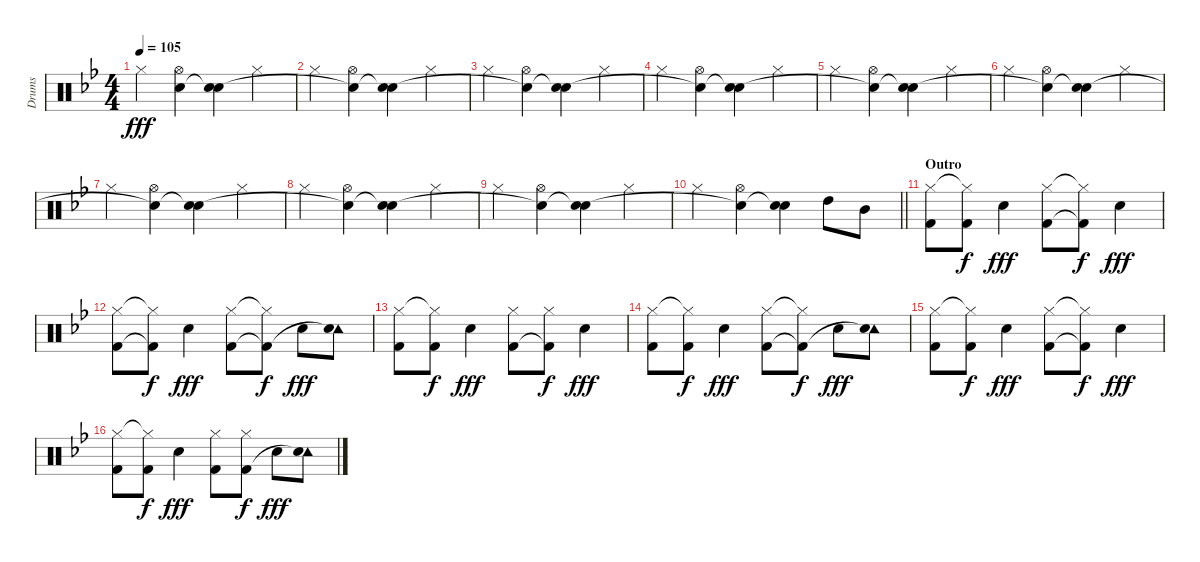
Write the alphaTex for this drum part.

\track ("Drums" "Drums") {instrument percussion}
\staff {score}
\articulation defaults
\ts (4 4)
\tempo 105
\clef neutral
\ks bb "Hi-Hat (closed)".4{dy fff}
("Hi-Hat (open)" "Snare (hit)"{t}).4 ("Snare (hit) 2" "Snare (hit)"{t}).4 "Hi-Hat (closed)".4 |
"Hi-Hat (closed)".4 ("Hi-Hat (open)" "Snare (hit)"{t}).4 ("Snare (hit) 2" "Snare (hit)"{t}).4 "Hi-Hat (closed)".4 |
"Hi-Hat (closed)".4 ("Hi-Hat (open)" "Snare (hit)"{t}).4 ("Snare (hit) 2" "Snare (hit)"{t}).4 "Hi-Hat (closed)".4 |
"Hi-Hat (closed)".4 ("Hi-Hat (open)" "Snare (hit)"{t}).4 ("Snare (hit) 2" "Snare (hit)"{t}).4 "Hi-Hat (closed)".4 |
"Hi-Hat (closed)".4 ("Hi-Hat (open)" "Snare (hit)"{t}).4 ("Snare (hit) 2" "Snare (hit)"{t}).4 "Hi-Hat (closed)".4 |
"Hi-Hat (closed)".4 ("Hi-Hat (open)" "Snare (hit)"{t}).4 ("Snare (hit) 2" "Snare (hit)"{t}).4 "Hi-Hat (closed)".4 |
"Hi-Hat (closed)".4 ("Hi-Hat (open)" "Snare (hit)"{t}).4 ("Snare (hit) 2" "Snare (hit)"{t}).4 "Hi-Hat (closed)".4 |
"Hi-Hat (closed)".4 ("Hi-Hat (open)" "Snare (hit)"{t}).4 ("Snare (hit) 2" "Snare (hit)"{t}).4 "Hi-Hat (closed)".4 |
"Hi-Hat (closed)".4 ("Hi-Hat (open)" "Snare (hit)"{t}).4 ("Snare (hit) 2" "Snare (hit)"{t}).4 "Hi-Hat (closed)".4 |
\barLineRight lightlight "Hi-Hat (closed)".4
("Hi-Hat (open)" "Snare (hit)"{t}).4 ("Snare (hit) 2" "Snare (hit)"{t}).4 "High Tom (hit)".8 "Mid Tom (hit)".8 |
\section ("" "Outro")
("Hi-Hat (closed)" "Kick (hit) 2").8 ("Hi-Hat (closed)"{t} "Kick (hit) 2").8{dy f} "Snare (hit) 2".4{dy fff} ("Hi-Hat (closed)" "Kick (hit) 2").8 ("Hi-Hat (closed)"{t} "Kick (hit) 2"{t}).8{dy f} "Snare (hit) 2".4{dy fff} |
("Hi-Hat (closed)" "Kick (hit) 2").8 ("Hi-Hat (closed)"{t} "Kick (hit) 2"{t}).8{dy f} "Snare (hit) 2".4{dy fff} ("Hi-Hat (closed)" "Kick (hit) 2").8 ("Hi-Hat (closed)"{t} "Kick (hit) 2"{t}).8{dy f} "Snare (hit) 2".8{dy fff} ("Tambourine (hit)" "Snare (hit)"{t}).8 |
("Hi-Hat (closed)" "Kick (hit) 2").8 ("Hi-Hat (closed)"{t} "Kick (hit) 2").8{dy f} "Snare (hit) 2".4{dy fff} ("Hi-Hat (closed)" "Kick (hit) 2").8 ("Hi-Hat (closed)" "Kick (hit) 2"{t}).8{dy f} "Snare (hit) 2".4{dy fff} |
("Hi-Hat (closed)" "Kick (hit) 2").8 ("Hi-Hat (closed)"{t} "Kick (hit) 2").8{dy f} "Snare (hit) 2".4{dy fff} ("Hi-Hat (closed)" "Kick (hit) 2").8 ("Hi-Hat (closed)"{t} "Kick (hit) 2"{t}).8{dy f} "Snare (hit) 2".8{dy fff} ("Tambourine (hit)" "Snare (hit)"{t}).8 |
("Hi-Hat (closed)" "Kick (hit) 2").8 ("Hi-Hat (closed)"{t} "Kick (hit) 2").8{dy f} "Snare (hit) 2".4{dy fff} ("Hi-Hat (closed)" "Kick (hit) 2").8 ("Hi-Hat (closed)"{t} "Kick (hit) 2"{t}).8{dy f} "Snare (hit) 2".4{dy fff} |
("Hi-Hat (closed)" "Kick (hit) 2").8 ("Hi-Hat (closed)"{t} "Kick (hit) 2").8{dy f} "Snare (hit) 2".4{dy fff} ("Hi-Hat (closed)" "Kick (hit) 2").8 ("Hi-Hat (closed)" "Kick (hit) 2").8{dy f} "Snare (hit) 2".8{dy fff} ("Tambourine (hit)" "Snare (hit)"{t}).8
